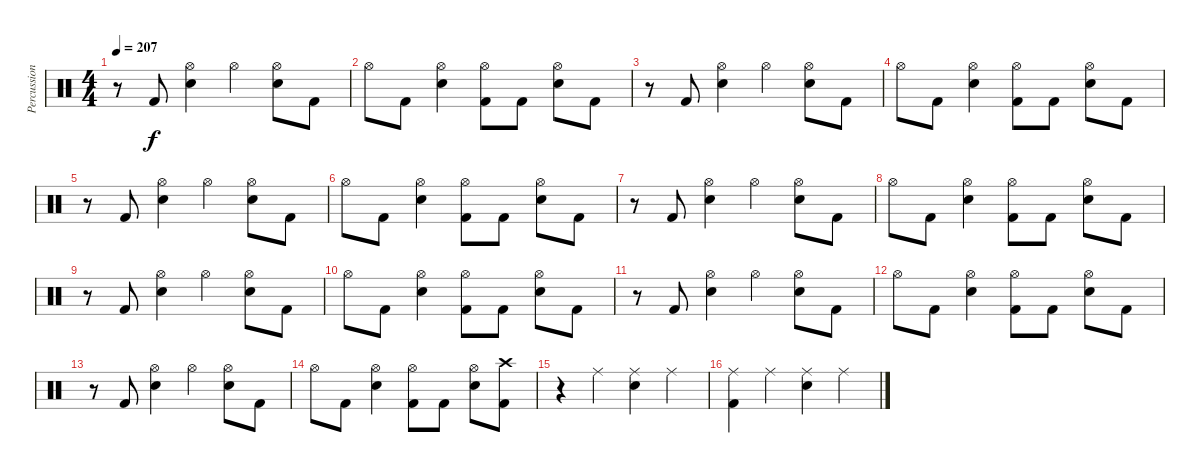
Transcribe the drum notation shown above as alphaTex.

\track ("Percussion" "Percussion") {instrument percussion}
\staff {score}
\articulation defaults
\ts (4 4)
\tempo 207
\clef neutral
\ks c
r.8{dy f} "Kick (hit) 2".8 ("Hi-Hat (open)" "Snare (hit) 2").4 "Hi-Hat (open)".4 ("Hi-Hat (open)" "Snare (hit) 2").8 "Kick (hit) 2".8 |
"Hi-Hat (open)".8 "Kick (hit) 2".8 ("Hi-Hat (open)" "Snare (hit) 2").4 ("Hi-Hat (open)" "Kick (hit) 2").8 "Kick (hit) 2".8 ("Hi-Hat (open)" "Snare (hit) 2").8 "Kick (hit) 2".8 |
r.8 "Kick (hit) 2".8 ("Hi-Hat (open)" "Snare (hit) 2").4 "Hi-Hat (open)".4 ("Hi-Hat (open)" "Snare (hit) 2").8 "Kick (hit) 2".8 |
"Hi-Hat (open)".8 "Kick (hit) 2".8 ("Hi-Hat (open)" "Snare (hit) 2").4 ("Hi-Hat (open)" "Kick (hit) 2").8 "Kick (hit) 2".8 ("Hi-Hat (open)" "Snare (hit) 2").8 "Kick (hit) 2".8 |
r.8 "Kick (hit) 2".8 ("Hi-Hat (open)" "Snare (hit) 2").4 "Hi-Hat (open)".4 ("Hi-Hat (open)" "Snare (hit) 2").8 "Kick (hit) 2".8 |
"Hi-Hat (open)".8 "Kick (hit) 2".8 ("Hi-Hat (open)" "Snare (hit) 2").4 ("Hi-Hat (open)" "Kick (hit) 2").8 "Kick (hit) 2".8 ("Hi-Hat (open)" "Snare (hit) 2").8 "Kick (hit) 2".8 |
r.8 "Kick (hit) 2".8 ("Hi-Hat (open)" "Snare (hit) 2").4 "Hi-Hat (open)".4 ("Hi-Hat (open)" "Snare (hit) 2").8 "Kick (hit) 2".8 |
"Hi-Hat (open)".8 "Kick (hit) 2".8 ("Hi-Hat (open)" "Snare (hit) 2").4 ("Hi-Hat (open)" "Kick (hit) 2").8 "Kick (hit) 2".8 ("Hi-Hat (open)" "Snare (hit) 2").8 "Kick (hit) 2".8 |
r.8 "Kick (hit) 2".8 ("Hi-Hat (open)" "Snare (hit) 2").4 "Hi-Hat (open)".4 ("Hi-Hat (open)" "Snare (hit) 2").8 "Kick (hit) 2".8 |
"Hi-Hat (open)".8 "Kick (hit) 2".8 ("Hi-Hat (open)" "Snare (hit) 2").4 ("Hi-Hat (open)" "Kick (hit) 2").8 "Kick (hit) 2".8 ("Hi-Hat (open)" "Snare (hit) 2").8 "Kick (hit) 2".8 |
r.8 "Kick (hit) 2".8 ("Hi-Hat (open)" "Snare (hit) 2").4 "Hi-Hat (open)".4 ("Hi-Hat (open)" "Snare (hit) 2").8 "Kick (hit) 2".8 |
"Hi-Hat (open)".8 "Kick (hit) 2".8 ("Hi-Hat (open)" "Snare (hit) 2").4 ("Hi-Hat (open)" "Kick (hit) 2").8 "Kick (hit) 2".8 ("Hi-Hat (open)" "Snare (hit) 2").8 "Kick (hit) 2".8 |
r.8 "Kick (hit) 2".8 ("Hi-Hat (open)" "Snare (hit) 2").4 "Hi-Hat (open)".4 ("Hi-Hat (open)" "Snare (hit) 2").8 "Kick (hit) 2".8 |
"Hi-Hat (open)".8 "Kick (hit) 2".8 ("Hi-Hat (open)" "Snare (hit) 2").4 ("Hi-Hat (open)" "Kick (hit) 2").8 "Kick (hit) 2".8 ("Hi-Hat (open)" "Snare (hit) 2").8 ("Crash high (hit)" "Kick (hit) 2").8 |
r.4 "Ride (middle)".4 ("Ride (middle)" "Snare (hit) 2").4 "Ride (middle)".4 |
("Ride (middle)" "Kick (hit) 2").4 "Ride (middle)".4 ("Ride (middle)" "Snare (hit) 2").4 "Ride (middle)".4
